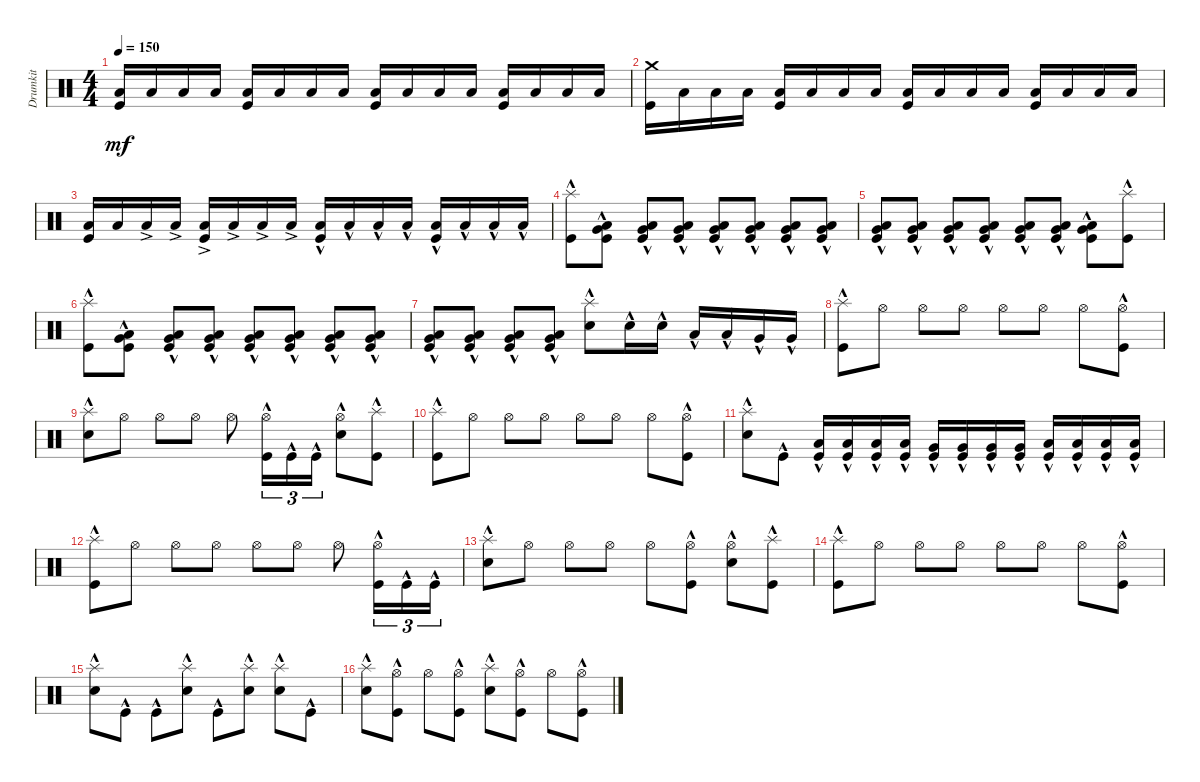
\track ("Drumkit" "Drumkit") {instrument percussion}
\staff {score}
\articulation defaults
\ts (4 4)
\tempo 150
\clef neutral
\ks c
("Low Floor Tom (hit)" "Kick (hit)").16{dy mf} "Low Floor Tom (hit)".16 "Low Floor Tom (hit)".16 "Low Floor Tom (hit)".16 ("Low Floor Tom (hit)" "Kick (hit)").16 "Low Floor Tom (hit)".16 "Low Floor Tom (hit)".16 "Low Floor Tom (hit)".16 ("Low Floor Tom (hit)" "Kick (hit)").16 "Low Floor Tom (hit)".16 "Low Floor Tom (hit)".16 "Low Floor Tom (hit)".16 ("Low Floor Tom (hit)" "Kick (hit)").16 "Low Floor Tom (hit)".16 "Low Floor Tom (hit)".16 "Low Floor Tom (hit)".16 |
("Kick (hit)" "Crash medium (hit)").16 "Low Floor Tom (hit)".16 "Low Floor Tom (hit)".16 "Low Floor Tom (hit)".16 ("Low Floor Tom (hit)" "Kick (hit)").16 "Low Floor Tom (hit)".16 "Low Floor Tom (hit)".16 "Low Floor Tom (hit)".16 ("Low Floor Tom (hit)" "Kick (hit)").16 "Low Floor Tom (hit)".16 "Low Floor Tom (hit)".16 "Low Floor Tom (hit)".16 ("Low Floor Tom (hit)" "Kick (hit)").16 "Low Floor Tom (hit)".16 "Low Floor Tom (hit)".16 "Low Floor Tom (hit)".16 |
("Low Floor Tom (hit)" "Kick (hit)").16 "Low Floor Tom (hit)".16 "Low Floor Tom (hit)"{ac}.16 "Low Floor Tom (hit)"{ac}.16 ("Low Floor Tom (hit)"{ac} "Kick (hit)").16 "Low Floor Tom (hit)"{ac}.16 "Low Floor Tom (hit)"{ac}.16 "Low Floor Tom (hit)"{ac}.16 ("Low Floor Tom (hit)"{hac} "Kick (hit)").16 "Low Floor Tom (hit)"{hac}.16 "Low Floor Tom (hit)"{hac}.16 "Low Floor Tom (hit)"{hac}.16 ("Low Floor Tom (hit)"{hac} "Kick (hit)").16 "Low Floor Tom (hit)"{hac}.16 "Low Floor Tom (hit)"{hac}.16 "Low Floor Tom (hit)"{hac}.16 |
("Kick (hit)"{hac} "Splash (hit)"{hac}).8 ("Low Floor Tom (hit)"{hac} "Very Low Tom (hit)"{hac} "Kick (hit)").8 ("Low Floor Tom (hit)"{hac} "Very Low Tom (hit)"{hac} "Kick (hit)").8 ("Low Floor Tom (hit)"{hac} "Very Low Tom (hit)"{hac} "Kick (hit)").8 ("Low Floor Tom (hit)"{hac} "Very Low Tom (hit)"{hac} "Kick (hit)").8 ("Low Floor Tom (hit)"{hac} "Very Low Tom (hit)"{hac} "Kick (hit)").8 ("Low Floor Tom (hit)"{hac} "Very Low Tom (hit)"{hac} "Kick (hit)").8 ("Low Floor Tom (hit)"{hac} "Very Low Tom (hit)"{hac} "Kick (hit)").8 |
("Low Floor Tom (hit)"{hac} "Very Low Tom (hit)"{hac} "Kick (hit)").8 ("Low Floor Tom (hit)"{hac} "Very Low Tom (hit)"{hac} "Kick (hit)").8 ("Low Floor Tom (hit)"{hac} "Very Low Tom (hit)"{hac} "Kick (hit)").8 ("Low Floor Tom (hit)"{hac} "Very Low Tom (hit)"{hac} "Kick (hit)").8 ("Low Floor Tom (hit)"{hac} "Very Low Tom (hit)"{hac} "Kick (hit)").8 ("Low Floor Tom (hit)"{hac} "Very Low Tom (hit)"{hac} "Kick (hit)").8 ("Low Floor Tom (hit)"{hac} "Very Low Tom (hit)"{hac} "Kick (hit)").8 ("Kick (hit)"{hac} "Splash (hit)").8 |
("Kick (hit)"{hac} "Splash (hit)").8 ("Low Floor Tom (hit)"{hac} "Very Low Tom (hit)"{hac} "Kick (hit)").8 ("Low Floor Tom (hit)"{hac} "Very Low Tom (hit)"{hac} "Kick (hit)").8 ("Low Floor Tom (hit)"{hac} "Very Low Tom (hit)"{hac} "Kick (hit)").8 ("Low Floor Tom (hit)"{hac} "Very Low Tom (hit)"{hac} "Kick (hit)").8 ("Low Floor Tom (hit)"{hac} "Very Low Tom (hit)"{hac} "Kick (hit)").8 ("Low Floor Tom (hit)"{hac} "Very Low Tom (hit)"{hac} "Kick (hit)").8 ("Low Floor Tom (hit)"{hac} "Very Low Tom (hit)"{hac} "Kick (hit)").8 |
("Low Floor Tom (hit)"{hac} "Very Low Tom (hit)"{hac} "Kick (hit)"{hac}).8 ("Low Floor Tom (hit)"{hac} "Very Low Tom (hit)"{hac} "Kick (hit)"{hac}).8 ("Low Floor Tom (hit)"{hac} "Very Low Tom (hit)"{hac} "Kick (hit)"{hac}).8 ("Low Floor Tom (hit)"{hac} "Very Low Tom (hit)"{hac} "Kick (hit)"{hac}).8 ("Snare (hit) 2"{hac} "Splash (hit)"{hac}).8 "Snare (hit) 2"{hac}.16 "Snare (hit) 2"{hac}.16 "Low Tom (hit)"{hac}.16 "Low Tom (hit)"{hac}.16 "Very Low Tom (hit)"{hac}.16 "Very Low Tom (hit)"{hac}.16 |
("Kick (hit)"{hac} "Splash (hit)"{hac}).8 "Hi-Hat (open)".8 "Hi-Hat (open)".8 "Hi-Hat (open)".8 "Hi-Hat (open)".8 "Hi-Hat (open)".8 "Hi-Hat (open)".8 ("Kick (hit)"{hac} "Hi-Hat (open)").8 |
("Snare (hit) 2"{hac} "Splash (hit)"{hac}).8 "Hi-Hat (open)".8 "Hi-Hat (open)".8 "Hi-Hat (open)".8 "Hi-Hat (open)".8 ("Kick (hit)"{hac} "Hi-Hat (open)").16{tu (3 2)} "Kick (hit)"{hac}.16{tu (3 2)} "Kick (hit)"{hac}.16{tu (3 2)} ("Snare (hit) 2"{hac} "Hi-Hat (open)").8 ("Kick (hit)"{hac} "Splash (hit)"{hac}).8 |
("Kick (hit)"{hac} "Splash (hit)"{hac}).8 "Hi-Hat (open)".8 "Hi-Hat (open)".8 "Hi-Hat (open)".8 "Hi-Hat (open)".8 "Hi-Hat (open)".8 "Hi-Hat (open)".8 ("Kick (hit)"{hac} "Hi-Hat (open)").8 |
("Snare (hit) 2"{hac} "Splash (hit)"{hac}).8 "Kick (hit)"{hac}.8 ("Low Tom (hit)"{hac} "Kick (hit)").16 ("Low Tom (hit)"{hac} "Kick (hit)").16 ("Low Tom (hit)"{hac} "Kick (hit)").16 ("Low Tom (hit)"{hac} "Kick (hit)").16 ("Very Low Tom (hit)"{hac} "Kick (hit)").16 ("Very Low Tom (hit)"{hac} "Kick (hit)").16 ("Very Low Tom (hit)"{hac} "Kick (hit)").16 ("Very Low Tom (hit)"{hac} "Kick (hit)").16 ("Low Floor Tom (hit)"{hac} "Kick (hit)").16 ("Low Floor Tom (hit)"{hac} "Kick (hit)").16 ("Low Floor Tom (hit)"{hac} "Kick (hit)").16 ("Low Floor Tom (hit)"{hac} "Kick (hit)").16 |
("Kick (hit)"{hac} "Splash (hit)"{hac}).8 "Hi-Hat (open)".8 "Hi-Hat (open)".8 "Hi-Hat (open)".8 "Hi-Hat (open)".8 "Hi-Hat (open)".8 "Hi-Hat (open)".8 ("Kick (hit)"{hac} "Hi-Hat (open)").16{tu (3 2)} "Kick (hit)"{hac}.16{tu (3 2)} "Kick (hit)"{hac}.16{tu (3 2)} |
("Snare (hit) 2"{hac} "Splash (hit)"{hac}).8 "Hi-Hat (open)".8 "Hi-Hat (open)".8 "Hi-Hat (open)".8 "Hi-Hat (open)".8 ("Kick (hit)"{hac} "Hi-Hat (open)").8 ("Snare (hit) 2"{hac} "Hi-Hat (open)").8 ("Kick (hit)"{hac} "Splash (hit)"{hac}).8 |
("Kick (hit)"{hac} "Splash (hit)"{hac}).8 "Hi-Hat (open)".8 "Hi-Hat (open)".8 "Hi-Hat (open)".8 "Hi-Hat (open)".8 "Hi-Hat (open)".8 "Hi-Hat (open)".8 ("Kick (hit)"{hac} "Hi-Hat (open)").8 |
("Snare (hit) 2"{hac} "Splash (hit)"{hac}).8 "Kick (hit)"{hac}.8 "Kick (hit)"{hac}.8 ("Snare (hit) 2"{hac} "Splash (hit)"{hac}).8 "Kick (hit)"{hac}.8 ("Snare (hit) 2"{hac} "Splash (hit)"{hac}).8 ("Snare (hit) 2"{hac} "Splash (hit)"{hac}).8 "Kick (hit)"{hac}.8 |
("Snare (hit) 2"{hac} "Splash (hit)"{hac}).8 ("Kick (hit)"{hac} "Hi-Hat (open)").8 "Hi-Hat (open)".8 ("Kick (hit)"{hac} "Hi-Hat (open)").8 ("Snare (hit) 2"{hac} "Splash (hit)"{hac}).8 ("Kick (hit)"{hac} "Hi-Hat (open)").8 "Hi-Hat (open)".8 ("Kick (hit)"{hac} "Hi-Hat (open)").8
